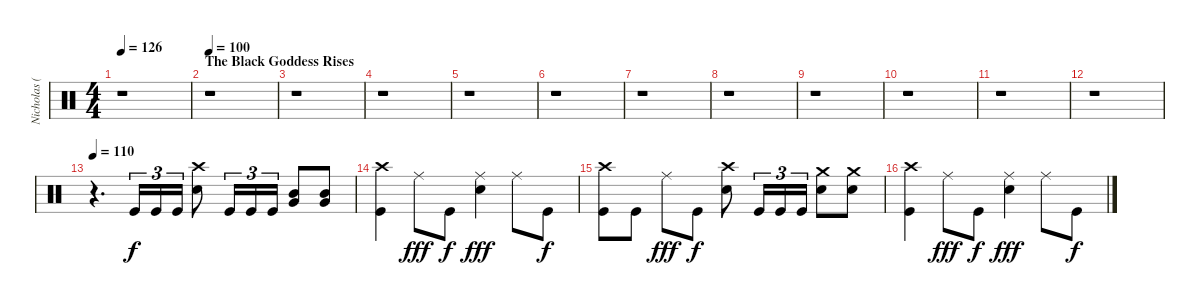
\track ("Nicholas (Drums)" "Nicholas (") {instrument percussion}
\staff {score}
\articulation defaults
\ts (4 4)
\tempo 126
\clef neutral
\ks c
r.1{dy f} |
\section ("" "The Black Goddess Rises")
\tempo 100
r.1 |
r.1 |
r.1 |
r.1 |
r.1 |
r.1 |
r.1 |
r.1 |
r.1 |
r.1 |
r.1 |
\tempo 110
r.4{d} "Kick (hit)".16{tu (3 2)} "Kick (hit)".16{tu (3 2)} "Kick (hit)".16{tu (3 2)} ("Crash high (hit)" "Electric Snare (hit)").8 "Kick (hit)".16{tu (3 2)} "Kick (hit)".16{tu (3 2)} "Kick (hit)".16{tu (3 2)} ("Mid Tom (hit)" "Very Low Tom (hit)").8{bu 60} ("Mid Tom (hit)" "Very Low Tom (hit)").8{bu 60} |
("Crash high (hit)" "Kick (hit)").4 "Ride (middle)".8{dy fff} "Kick (hit)".8{dy f} ("Ride (middle)" "Electric Snare (hit)").4{dy fff} "Ride (middle)".8 "Kick (hit)".8{dy f} |
("Crash high (hit)" "Kick (hit)").8 "Kick (hit)".8 "Ride (middle)".8{dy fff} "Kick (hit)".8{dy f} ("Crash high (hit)" "Electric Snare (hit)").8 "Kick (hit)".16{tu (3 2)} "Kick (hit)".16{tu (3 2)} "Kick (hit)".16{tu (3 2)} ("Crash medium (hit)" "Electric Snare (hit)").8 ("Crash medium (hit)" "Electric Snare (hit)").8 |
("Crash high (hit)" "Kick (hit)").4 "Ride (middle)".8{dy fff} "Kick (hit)".8{dy f} ("Ride (middle)" "Electric Snare (hit)").4{dy fff} "Ride (middle)".8 "Kick (hit)".8{dy f}
